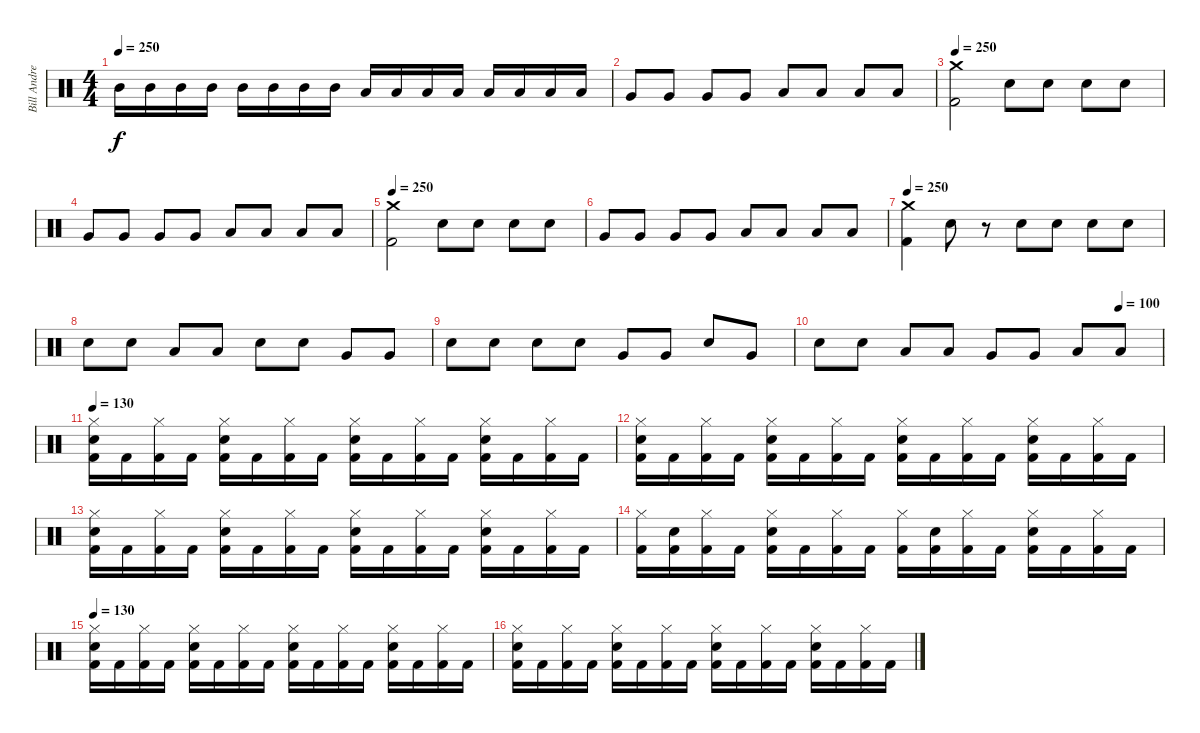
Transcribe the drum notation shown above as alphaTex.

\track ("Bill Andrews" "Bill Andre") {instrument percussion}
\staff {score}
\articulation defaults
\ts (4 4)
\tempo 250
\clef neutral
\ks c "Mid Tom (hit)".16{dy f} "Mid Tom (hit)".16 "Mid Tom (hit)".16 "Mid Tom (hit)".16 "Mid Tom (hit)".16 "Mid Tom (hit)".16 "Mid Tom (hit)".16 "Mid Tom (hit)".16 "Low Tom (hit)".16 "Low Tom (hit)".16 "Low Tom (hit)".16 "Low Tom (hit)".16 "Low Tom (hit)".16 "Low Tom (hit)".16 "Low Tom (hit)".16 "Low Tom (hit)".16
|
"Very Low Tom (hit)".8 "Very Low Tom (hit)".8 "Very Low Tom (hit)".8 "Very Low Tom (hit)".8 "Low Floor Tom (hit)".8 "Low Floor Tom (hit)".8 "Low Floor Tom (hit)".8 "Low Floor Tom (hit)".8 |
\tempo 250
("Crash medium (hit)" "Kick (hit) 2").2 "Snare (hit) 2".8 "Snare (hit) 2".8 "Snare (hit) 2".8 "Snare (hit) 2".8 |
"Very Low Tom (hit)".8 "Very Low Tom (hit)".8 "Very Low Tom (hit)".8 "Very Low Tom (hit)".8 "Low Floor Tom (hit)".8 "Low Floor Tom (hit)".8 "Low Floor Tom (hit)".8 "Low Floor Tom (hit)".8 |
\tempo 250
("Crash medium (hit)" "Kick (hit) 2").2 "Snare (hit) 2".8 "Snare (hit) 2".8 "Snare (hit) 2".8 "Snare (hit) 2".8 |
"Very Low Tom (hit)".8 "Very Low Tom (hit)".8 "Very Low Tom (hit)".8 "Very Low Tom (hit)".8 "Low Floor Tom (hit)".8 "Low Floor Tom (hit)".8 "Low Floor Tom (hit)".8 "Low Floor Tom (hit)".8 |
\tempo 250
("Crash medium (hit)" "Kick (hit) 2").4 "Snare (hit) 2".8 r.8 "Snare (hit) 2".8 "Snare (hit) 2".8 "Snare (hit) 2".8 "Snare (hit) 2".8 |
"Snare (hit) 2".8 "Snare (hit) 2".8 "Low Tom (hit)".8 "Low Tom (hit)".8 "Snare (hit) 2".8 "Snare (hit) 2".8 "Very Low Tom (hit)".8 "Very Low Tom (hit)".8 |
"Snare (hit) 2".8 "Snare (hit) 2".8 "Snare (hit) 2".8 "Snare (hit) 2".8 "Very Low Tom (hit)".8 "Very Low Tom (hit)".8 "Snare (hit) 2".8 "Very Low Tom (hit)".8 |
\tempo (100 0.875)
"Snare (hit) 2".8 "Snare (hit) 2".8 "Low Tom (hit)".8 "Low Tom (hit)".8 "Very Low Tom (hit)".8 "Very Low Tom (hit)".8 "Low Floor Tom (hit)".8 "Low Floor Tom (hit)".8 |
\tempo 130
("Hi-Hat (closed)" "Snare (hit) 2" "Kick (hit) 2").16 "Kick (hit) 2".16 ("Hi-Hat (closed)" "Kick (hit) 2").16 "Kick (hit) 2".16 ("Hi-Hat (closed)" "Snare (hit) 2" "Kick (hit) 2").16 "Kick (hit) 2".16 ("Hi-Hat (closed)" "Kick (hit) 2").16 "Kick (hit) 2".16 ("Hi-Hat (closed)" "Snare (hit) 2" "Kick (hit) 2").16 "Kick (hit) 2".16 ("Hi-Hat (closed)" "Kick (hit) 2").16 "Kick (hit) 2".16 ("Hi-Hat (closed)" "Snare (hit) 2" "Kick (hit) 2").16 "Kick (hit) 2".16 ("Hi-Hat (closed)" "Kick (hit) 2").16 "Kick (hit) 2".16 |
("Hi-Hat (closed)" "Snare (hit) 2" "Kick (hit) 2").16 "Kick (hit) 2".16 ("Hi-Hat (closed)" "Kick (hit) 2").16 "Kick (hit) 2".16 ("Hi-Hat (closed)" "Snare (hit) 2" "Kick (hit) 2").16 "Kick (hit) 2".16 ("Hi-Hat (closed)" "Kick (hit) 2").16 "Kick (hit) 2".16 ("Hi-Hat (closed)" "Snare (hit) 2" "Kick (hit) 2").16 "Kick (hit) 2".16 ("Hi-Hat (closed)" "Kick (hit) 2").16 "Kick (hit) 2".16 ("Hi-Hat (closed)" "Snare (hit) 2" "Kick (hit) 2").16 "Kick (hit) 2".16 ("Hi-Hat (closed)" "Kick (hit) 2").16 "Kick (hit) 2".16 |
("Hi-Hat (closed)" "Snare (hit) 2" "Kick (hit) 2").16 "Kick (hit) 2".16 ("Hi-Hat (closed)" "Kick (hit) 2").16 "Kick (hit) 2".16 ("Hi-Hat (closed)" "Snare (hit) 2" "Kick (hit) 2").16 "Kick (hit) 2".16 ("Hi-Hat (closed)" "Kick (hit) 2").16 "Kick (hit) 2".16 ("Hi-Hat (closed)" "Snare (hit) 2" "Kick (hit) 2").16 "Kick (hit) 2".16 ("Hi-Hat (closed)" "Kick (hit) 2").16 "Kick (hit) 2".16 ("Hi-Hat (closed)" "Snare (hit) 2" "Kick (hit) 2").16 "Kick (hit) 2".16 ("Hi-Hat (closed)" "Kick (hit) 2").16 "Kick (hit) 2".16 |
("Hi-Hat (closed)" "Kick (hit) 2").16 ("Snare (hit) 2" "Kick (hit) 2").16 ("Hi-Hat (closed)" "Kick (hit) 2").16 "Kick (hit) 2".16 ("Hi-Hat (closed)" "Snare (hit) 2" "Kick (hit) 2").16 "Kick (hit) 2".16 ("Hi-Hat (closed)" "Kick (hit) 2").16 "Kick (hit) 2".16 ("Hi-Hat (closed)" "Kick (hit) 2").16 ("Snare (hit) 2" "Kick (hit) 2").16 ("Hi-Hat (closed)" "Kick (hit) 2").16 "Kick (hit) 2".16 ("Hi-Hat (closed)" "Snare (hit) 2" "Kick (hit) 2").16 "Kick (hit) 2".16 ("Hi-Hat (closed)" "Kick (hit) 2").16 "Kick (hit) 2".16 |
\tempo 130
("Hi-Hat (closed)" "Snare (hit) 2" "Kick (hit) 2").16 "Kick (hit) 2".16 ("Hi-Hat (closed)" "Kick (hit) 2").16 "Kick (hit) 2".16 ("Hi-Hat (closed)" "Snare (hit) 2" "Kick (hit) 2").16 "Kick (hit) 2".16 ("Hi-Hat (closed)" "Kick (hit) 2").16 "Kick (hit) 2".16 ("Hi-Hat (closed)" "Snare (hit) 2" "Kick (hit) 2").16 "Kick (hit) 2".16 ("Hi-Hat (closed)" "Kick (hit) 2").16 "Kick (hit) 2".16 ("Hi-Hat (closed)" "Snare (hit) 2" "Kick (hit) 2").16 "Kick (hit) 2".16 ("Hi-Hat (closed)" "Kick (hit) 2").16 "Kick (hit) 2".16 |
("Hi-Hat (closed)" "Snare (hit) 2" "Kick (hit) 2").16 "Kick (hit) 2".16 ("Hi-Hat (closed)" "Kick (hit) 2").16 "Kick (hit) 2".16 ("Hi-Hat (closed)" "Snare (hit) 2" "Kick (hit) 2").16 "Kick (hit) 2".16 ("Hi-Hat (closed)" "Kick (hit) 2").16 "Kick (hit) 2".16 ("Hi-Hat (closed)" "Snare (hit) 2" "Kick (hit) 2").16 "Kick (hit) 2".16 ("Hi-Hat (closed)" "Kick (hit) 2").16 "Kick (hit) 2".16 ("Hi-Hat (closed)" "Snare (hit) 2" "Kick (hit) 2").16 "Kick (hit) 2".16 ("Hi-Hat (closed)" "Kick (hit) 2").16 "Kick (hit) 2".16
